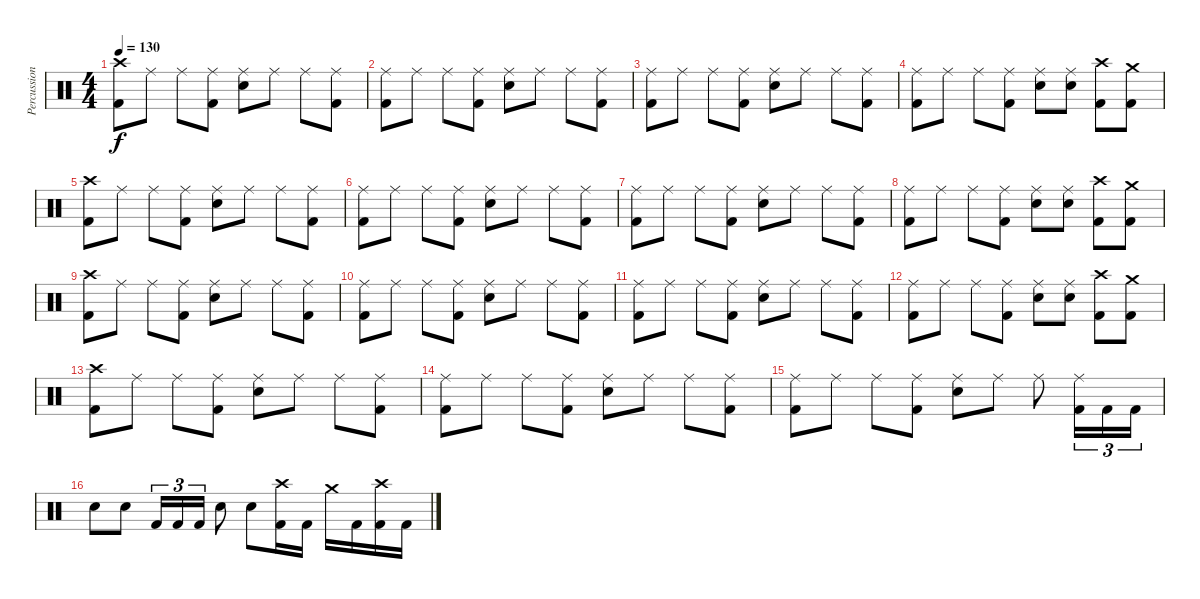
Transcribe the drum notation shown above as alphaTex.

\track ("Percussion" "Percussion") {instrument percussion}
\staff {score}
\articulation defaults
\ts (4 4)
\tempo 130
\clef neutral
\ks c
("Crash high (hit)" "Kick (hit) 2").8{dy f} "Ride (middle)".8 "Ride (middle)".8 ("Ride (middle)" "Kick (hit) 2").8 ("Ride (middle)" "Electric Snare (hit)").8 "Ride (middle)".8 "Ride (middle)".8 ("Ride (middle)" "Kick (hit) 2").8 |
("Ride (middle)" "Kick (hit) 2").8 "Ride (middle)".8 "Ride (middle)".8 ("Ride (middle)" "Kick (hit) 2").8 ("Ride (middle)" "Electric Snare (hit)").8 "Ride (middle)".8 "Ride (middle)".8 ("Ride (middle)" "Kick (hit) 2").8 |
("Ride (middle)" "Kick (hit) 2").8 "Ride (middle)".8 "Ride (middle)".8 ("Ride (middle)" "Kick (hit) 2").8 ("Ride (middle)" "Electric Snare (hit)").8 "Ride (middle)".8 "Ride (middle)".8 ("Ride (middle)" "Kick (hit) 2").8 |
("Ride (middle)" "Kick (hit) 2").8 "Ride (middle)".8 "Ride (middle)".8 ("Ride (middle)" "Kick (hit) 2").8 ("Ride (middle)" "Electric Snare (hit)").8 ("Ride (middle)" "Electric Snare (hit)").8 ("Crash high (hit)" "Kick (hit) 2").8 ("Crash medium (hit)" "Kick (hit) 2").8 |
("Crash high (hit)" "Kick (hit) 2").8 "Ride (middle)".8 "Ride (middle)".8 ("Ride (middle)" "Kick (hit) 2").8 ("Ride (middle)" "Electric Snare (hit)").8 "Ride (middle)".8 "Ride (middle)".8 ("Ride (middle)" "Kick (hit) 2").8 |
("Ride (middle)" "Kick (hit) 2").8 "Ride (middle)".8 "Ride (middle)".8 ("Ride (middle)" "Kick (hit) 2").8 ("Ride (middle)" "Electric Snare (hit)").8 "Ride (middle)".8 "Ride (middle)".8 ("Ride (middle)" "Kick (hit) 2").8 |
("Ride (middle)" "Kick (hit) 2").8 "Ride (middle)".8 "Ride (middle)".8 ("Ride (middle)" "Kick (hit) 2").8 ("Ride (middle)" "Electric Snare (hit)").8 "Ride (middle)".8 "Ride (middle)".8 ("Ride (middle)" "Kick (hit) 2").8 |
("Ride (middle)" "Kick (hit) 2").8 "Ride (middle)".8 "Ride (middle)".8 ("Ride (middle)" "Kick (hit) 2").8 ("Ride (middle)" "Electric Snare (hit)").8 ("Ride (middle)" "Electric Snare (hit)").8 ("Crash high (hit)" "Kick (hit) 2").8 ("Crash medium (hit)" "Kick (hit) 2").8 |
("Crash high (hit)" "Kick (hit) 2").8 "Ride (middle)".8 "Ride (middle)".8 ("Ride (middle)" "Kick (hit) 2").8 ("Ride (middle)" "Electric Snare (hit)").8 "Ride (middle)".8 "Ride (middle)".8 ("Ride (middle)" "Kick (hit) 2").8 |
("Ride (middle)" "Kick (hit) 2").8 "Ride (middle)".8 "Ride (middle)".8 ("Ride (middle)" "Kick (hit) 2").8 ("Ride (middle)" "Electric Snare (hit)").8 "Ride (middle)".8 "Ride (middle)".8 ("Ride (middle)" "Kick (hit) 2").8 |
("Ride (middle)" "Kick (hit) 2").8 "Ride (middle)".8 "Ride (middle)".8 ("Ride (middle)" "Kick (hit) 2").8 ("Ride (middle)" "Electric Snare (hit)").8 "Ride (middle)".8 "Ride (middle)".8 ("Ride (middle)" "Kick (hit) 2").8 |
("Ride (middle)" "Kick (hit) 2").8 "Ride (middle)".8 "Ride (middle)".8 ("Ride (middle)" "Kick (hit) 2").8 ("Ride (middle)" "Electric Snare (hit)").8 ("Ride (middle)" "Electric Snare (hit)").8 ("Crash high (hit)" "Kick (hit) 2").8 ("Crash medium (hit)" "Kick (hit) 2").8 |
("Crash high (hit)" "Kick (hit) 2").8 "Ride (middle)".8 "Ride (middle)".8 ("Ride (middle)" "Kick (hit) 2").8 ("Ride (middle)" "Electric Snare (hit)").8 "Ride (middle)".8 "Ride (middle)".8 ("Ride (middle)" "Kick (hit) 2").8 |
("Ride (middle)" "Kick (hit) 2").8 "Ride (middle)".8 "Ride (middle)".8 ("Ride (middle)" "Kick (hit) 2").8 ("Ride (middle)" "Electric Snare (hit)").8 "Ride (middle)".8 "Ride (middle)".8 ("Ride (middle)" "Kick (hit) 2").8 |
("Ride (middle)" "Kick (hit) 2").8 "Ride (middle)".8 "Ride (middle)".8 ("Ride (middle)" "Kick (hit) 2").8 ("Ride (middle)" "Electric Snare (hit)").8 "Ride (middle)".8 "Ride (middle)".8 ("Ride (middle)" "Kick (hit) 2").16{tu (3 2)} "Kick (hit) 2".16{tu (3 2)} "Kick (hit) 2".16{tu (3 2)} |
"Electric Snare (hit)".8 "Electric Snare (hit)".8 "Kick (hit) 2".16{tu (3 2)} "Kick (hit) 2".16{tu (3 2)} "Kick (hit) 2".16{tu (3 2)} "Electric Snare (hit)".8 "Electric Snare (hit)".8 ("Crash high (hit)" "Kick (hit) 2").16 "Kick (hit) 2".16 "Crash medium (hit)".16 "Kick (hit) 2".16 ("Crash high (hit)" "Kick (hit) 2").16 "Kick (hit) 2".16
